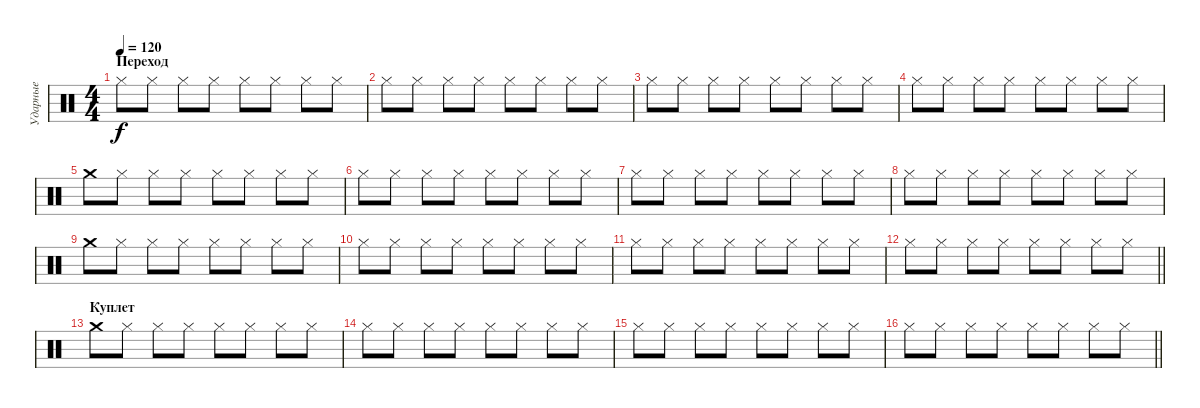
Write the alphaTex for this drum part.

\track ("Ударные" "Ударные") {instrument percussion}
\staff {score}
\articulation defaults
\ts (4 4)
\section ("" "Переход")
\tempo 120
\clef neutral
\ks c "Hi-Hat (closed)".8{dy f} "Hi-Hat (closed)".8 "Hi-Hat (closed)".8 "Hi-Hat (closed)".8 "Hi-Hat (closed)".8 "Hi-Hat (closed)".8 "Hi-Hat (closed)".8 "Hi-Hat (closed)".8
|
"Hi-Hat (closed)".8 "Hi-Hat (closed)".8 "Hi-Hat (closed)".8 "Hi-Hat (closed)".8 "Hi-Hat (closed)".8 "Hi-Hat (closed)".8 "Hi-Hat (closed)".8 "Hi-Hat (closed)".8 |
"Hi-Hat (closed)".8 "Hi-Hat (closed)".8 "Hi-Hat (closed)".8 "Hi-Hat (closed)".8 "Hi-Hat (closed)".8 "Hi-Hat (closed)".8 "Hi-Hat (closed)".8 "Hi-Hat (closed)".8 |
"Hi-Hat (closed)".8 "Hi-Hat (closed)".8 "Hi-Hat (closed)".8 "Hi-Hat (closed)".8 "Hi-Hat (closed)".8 "Hi-Hat (closed)".8 "Hi-Hat (closed)".8 "Hi-Hat (closed)".8 |
"Crash medium (hit)".8 "Hi-Hat (closed)".8 "Hi-Hat (closed)".8 "Hi-Hat (closed)".8 "Hi-Hat (closed)".8 "Hi-Hat (closed)".8 "Hi-Hat (closed)".8 "Hi-Hat (closed)".8 |
"Hi-Hat (closed)".8 "Hi-Hat (closed)".8 "Hi-Hat (closed)".8 "Hi-Hat (closed)".8 "Hi-Hat (closed)".8 "Hi-Hat (closed)".8 "Hi-Hat (closed)".8 "Hi-Hat (closed)".8 |
"Hi-Hat (closed)".8 "Hi-Hat (closed)".8 "Hi-Hat (closed)".8 "Hi-Hat (closed)".8 "Hi-Hat (closed)".8 "Hi-Hat (closed)".8 "Hi-Hat (closed)".8 "Hi-Hat (closed)".8 |
"Hi-Hat (closed)".8 "Hi-Hat (closed)".8 "Hi-Hat (closed)".8 "Hi-Hat (closed)".8 "Hi-Hat (closed)".8 "Hi-Hat (closed)".8 "Hi-Hat (closed)".8 "Hi-Hat (closed)".8 |
"Crash medium (hit)".8 "Hi-Hat (closed)".8 "Hi-Hat (closed)".8 "Hi-Hat (closed)".8 "Hi-Hat (closed)".8 "Hi-Hat (closed)".8 "Hi-Hat (closed)".8 "Hi-Hat (closed)".8 |
"Hi-Hat (closed)".8 "Hi-Hat (closed)".8 "Hi-Hat (closed)".8 "Hi-Hat (closed)".8 "Hi-Hat (closed)".8 "Hi-Hat (closed)".8 "Hi-Hat (closed)".8 "Hi-Hat (closed)".8 |
"Hi-Hat (closed)".8 "Hi-Hat (closed)".8 "Hi-Hat (closed)".8 "Hi-Hat (closed)".8 "Hi-Hat (closed)".8 "Hi-Hat (closed)".8 "Hi-Hat (closed)".8 "Hi-Hat (closed)".8 |
\barLineRight lightlight "Hi-Hat (closed)".8 "Hi-Hat (closed)".8 "Hi-Hat (closed)".8 "Hi-Hat (closed)".8 "Hi-Hat (closed)".8 "Hi-Hat (closed)".8 "Hi-Hat (closed)".8 "Hi-Hat (closed)".8
|
\section ("" "Куплет")
"Crash medium (hit)".8 "Hi-Hat (closed)".8 "Hi-Hat (closed)".8 "Hi-Hat (closed)".8 "Hi-Hat (closed)".8 "Hi-Hat (closed)".8 "Hi-Hat (closed)".8 "Hi-Hat (closed)".8 |
"Hi-Hat (closed)".8 "Hi-Hat (closed)".8 "Hi-Hat (closed)".8 "Hi-Hat (closed)".8 "Hi-Hat (closed)".8 "Hi-Hat (closed)".8 "Hi-Hat (closed)".8 "Hi-Hat (closed)".8 |
"Hi-Hat (closed)".8 "Hi-Hat (closed)".8 "Hi-Hat (closed)".8 "Hi-Hat (closed)".8 "Hi-Hat (closed)".8 "Hi-Hat (closed)".8 "Hi-Hat (closed)".8 "Hi-Hat (closed)".8 |
\barLineRight lightlight "Hi-Hat (closed)".8 "Hi-Hat (closed)".8 "Hi-Hat (closed)".8 "Hi-Hat (closed)".8 "Hi-Hat (closed)".8 "Hi-Hat (closed)".8 "Hi-Hat (closed)".8 "Hi-Hat (closed)".8
